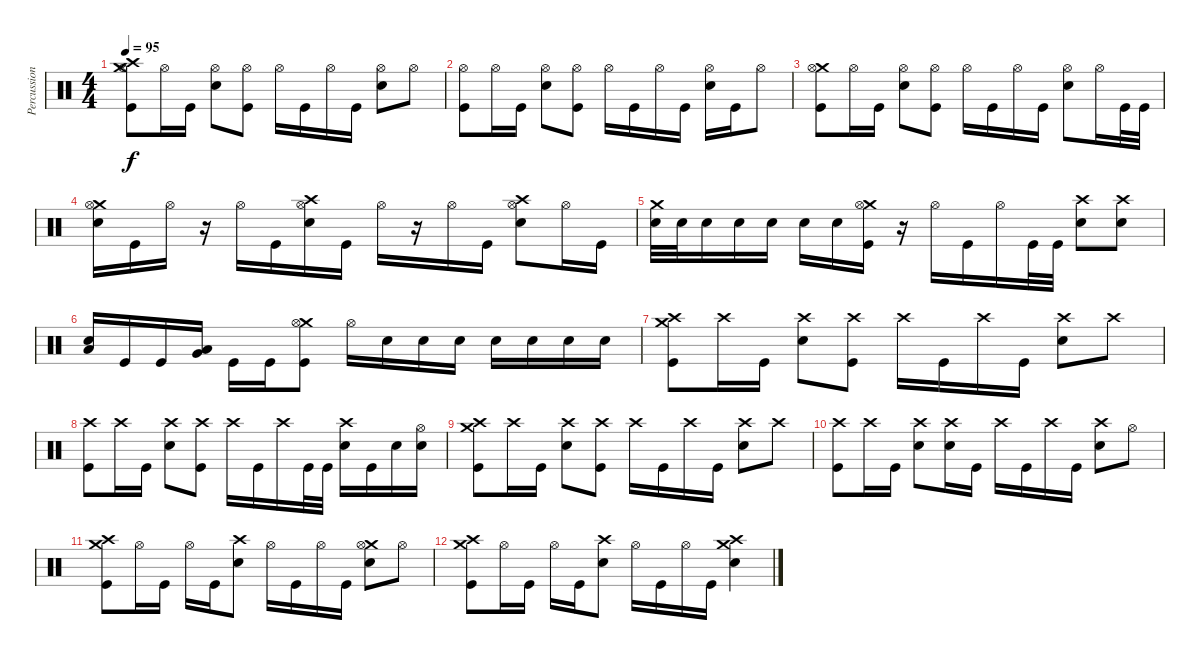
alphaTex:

\track ("Percussion" "Percussion") {instrument percussion}
\staff {score}
\articulation defaults
\ts (4 4)
\tempo 95
\clef neutral
\ks c
("Crash high (hit)" "Crash medium (hit)" "Hi-Hat (open)" "Kick (hit)").8{dy f} "Hi-Hat (open)".16 "Kick (hit)".16 ("Hi-Hat (open)" "Snare (hit) 2").8 ("Hi-Hat (open)" "Kick (hit)").8 "Hi-Hat (open)".16 "Kick (hit)".16 "Hi-Hat (open)".16 "Kick (hit)".16 ("Hi-Hat (open)" "Snare (hit) 2").8 "Hi-Hat (open)".8 |
("Hi-Hat (open)" "Kick (hit)").8 "Hi-Hat (open)".16 "Kick (hit)".16 ("Hi-Hat (open)" "Snare (hit) 2").8 ("Hi-Hat (open)" "Kick (hit)").8 "Hi-Hat (open)".16 "Kick (hit)".16 "Hi-Hat (open)".16 "Kick (hit)".16 ("Hi-Hat (open)" "Snare (hit) 2").16 "Kick (hit)".16 "Hi-Hat (open)".8 |
("Crash medium (hit)" "Hi-Hat (open)" "Kick (hit)").8 "Hi-Hat (open)".16 "Kick (hit)".16 ("Hi-Hat (open)" "Snare (hit) 2").8 ("Hi-Hat (open)" "Kick (hit)").8 "Hi-Hat (open)".16 "Kick (hit)".16 "Hi-Hat (open)".16 "Kick (hit)".16 ("Hi-Hat (open)" "Snare (hit) 2").8 "Hi-Hat (open)".16 "Kick (hit)".32 "Kick (hit)".32 |
("Crash medium (hit)" "Hi-Hat (open)" "Snare (hit) 2").16 "Kick (hit)".16 "Hi-Hat (open)".16 r.16 "Hi-Hat (open)".16 "Kick (hit)".16 ("Crash high (hit)" "Hi-Hat (open)" "Snare (hit) 2").16 "Kick (hit)".16 "Hi-Hat (open)".16 r.16 "Hi-Hat (open)".16 "Kick (hit)".16 ("Crash high (hit)" "Hi-Hat (open)" "Snare (hit) 2").8 "Hi-Hat (open)".16 "Kick (hit)".16 |
("Crash medium (hit)" "Snare (hit) 2").32 "Snare (hit) 2".32 "Snare (hit) 2".16 "Snare (hit) 2".16 "Snare (hit) 2".16 "Snare (hit) 2".16 "Snare (hit) 2".16 ("Crash medium (hit)" "Hi-Hat (open)" "Kick (hit)").16 r.16 "Hi-Hat (open)".16 "Kick (hit)".16 "Hi-Hat (open)".16 "Kick (hit)".32 "Kick (hit)".32 ("Crash high (hit)" "Snare (hit) 2").8 ("Crash high (hit)" "Snare (hit) 2").8 |
("Low Floor Tom (hit)" "Snare (hit) 2").16 "Kick (hit)".16 "Kick (hit)".16 ("Low Floor Tom (hit)" "Very Low Tom (hit)").16 "Kick (hit)".16 "Kick (hit)".16 ("Crash medium (hit)" "Hi-Hat (open)" "Kick (hit)").8 "Hi-Hat (open)".16 "Snare (hit) 2".16 "Snare (hit) 2".16 "Snare (hit) 2".16 "Snare (hit) 2".16 "Snare (hit) 2".16 "Snare (hit) 2".16 "Snare (hit) 2".16 |
("Crash medium (hit)" "Crash high (hit)" "Kick (hit)").8 "Crash high (hit)".16 "Kick (hit)".16 ("Crash high (hit)" "Snare (hit) 2").8 ("Crash high (hit)" "Kick (hit)").8 "Crash high (hit)".16 "Kick (hit)".16 "Crash high (hit)".16 "Kick (hit)".16 ("Crash high (hit)" "Snare (hit) 2").8 "Crash high (hit)".8 |
("Crash high (hit)" "Kick (hit)").8 "Crash high (hit)".16 "Kick (hit)".16 ("Crash high (hit)" "Snare (hit) 2").8 ("Crash high (hit)" "Kick (hit)").8 "Crash high (hit)".16 "Kick (hit)".16 "Crash high (hit)".16 "Kick (hit)".32 "Kick (hit)".32 ("Crash high (hit)" "Snare (hit) 2").16 "Kick (hit)".16 "Snare (hit) 2".16 ("Hi-Hat (open)" "Snare (hit) 2").16 |
("Crash medium (hit)" "Crash high (hit)" "Kick (hit)").8 "Crash high (hit)".16 "Kick (hit)".16 ("Crash high (hit)" "Snare (hit) 2").8 ("Crash high (hit)" "Kick (hit)").8 "Crash high (hit)".16 "Kick (hit)".16 "Crash high (hit)".16 "Kick (hit)".16 ("Crash high (hit)" "Snare (hit) 2").8 "Crash high (hit)".8 |
("Crash high (hit)" "Kick (hit)").8 "Crash high (hit)".16 "Kick (hit)".16 ("Crash high (hit)" "Snare (hit) 2").8 ("Crash high (hit)" "Snare (hit) 2").16 "Kick (hit)".16 "Crash high (hit)".16 "Kick (hit)".16 "Crash high (hit)".16 "Kick (hit)".16 ("Crash high (hit)" "Snare (hit) 2").8 "Hi-Hat (open)".8 |
("Crash medium (hit)" "Crash high (hit)" "Kick (hit)").8 "Hi-Hat (open)".16 "Kick (hit)".16 "Hi-Hat (open)".16 "Kick (hit)".16 ("Crash high (hit)" "Snare (hit) 2").8 "Hi-Hat (open)".16 "Kick (hit)".16 "Hi-Hat (open)".16 "Kick (hit)".16 ("Crash medium (hit)" "Hi-Hat (open)" "Snare (hit) 2").8 "Hi-Hat (open)".8 |
("Crash medium (hit)" "Crash high (hit)" "Kick (hit)").8 "Hi-Hat (open)".16 "Kick (hit)".16 "Hi-Hat (open)".16 "Kick (hit)".16 ("Crash high (hit)" "Snare (hit) 2").8 "Hi-Hat (open)".16 "Kick (hit)".16 "Hi-Hat (open)".16 "Kick (hit)".16 ("Crash medium (hit)" "Crash high (hit)" "Snare (hit) 2").4
